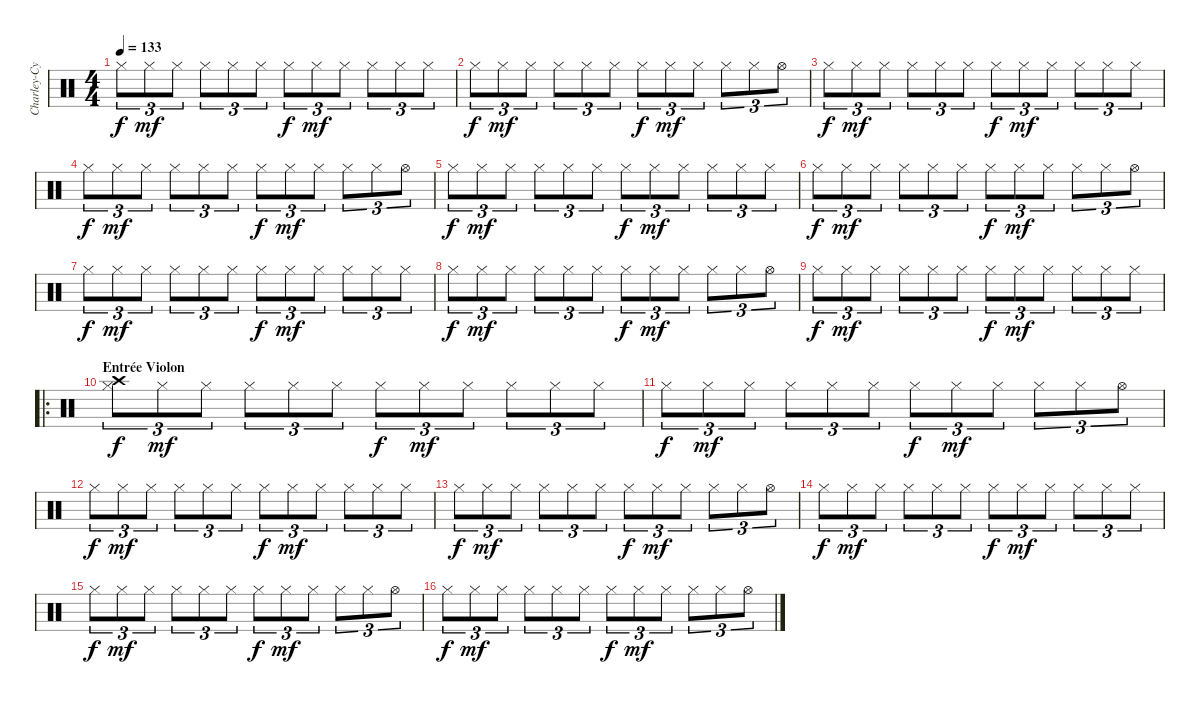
\track ("Charley-Cymbales" "Charley-Cy") {instrument percussion}
\staff {score}
\articulation defaults
\ts (4 4)
\tempo 133
\clef neutral
\ks c "Hi-Hat (closed)".8{tu (3 2) dy f} "Hi-Hat (closed)".8{tu (3 2) dy mf} "Hi-Hat (closed)".8{tu (3 2)} "Hi-Hat (closed)".8{tu (3 2)} "Hi-Hat (closed)".8{tu (3 2)} "Hi-Hat (closed)".8{tu (3 2)} "Hi-Hat (closed)".8{tu (3 2) dy f} "Hi-Hat (closed)".8{tu (3 2) dy mf} "Hi-Hat (closed)".8{tu (3 2)} "Hi-Hat (closed)".8{tu (3 2)} "Hi-Hat (closed)".8{tu (3 2)} "Hi-Hat (closed)".8{tu (3 2)}
|
"Hi-Hat (closed)".8{tu (3 2) dy f} "Hi-Hat (closed)".8{tu (3 2) dy mf} "Hi-Hat (closed)".8{tu (3 2)} "Hi-Hat (closed)".8{tu (3 2)} "Hi-Hat (closed)".8{tu (3 2)} "Hi-Hat (closed)".8{tu (3 2)} "Hi-Hat (closed)".8{tu (3 2) dy f} "Hi-Hat (closed)".8{tu (3 2) dy mf} "Hi-Hat (closed)".8{tu (3 2)} "Hi-Hat (closed)".8{tu (3 2)} "Hi-Hat (closed)".8{tu (3 2)} "Hi-Hat (open)".8{tu (3 2)} |
"Hi-Hat (closed)".8{tu (3 2) dy f} "Hi-Hat (closed)".8{tu (3 2) dy mf} "Hi-Hat (closed)".8{tu (3 2)} "Hi-Hat (closed)".8{tu (3 2)} "Hi-Hat (closed)".8{tu (3 2)} "Hi-Hat (closed)".8{tu (3 2)} "Hi-Hat (closed)".8{tu (3 2) dy f} "Hi-Hat (closed)".8{tu (3 2) dy mf} "Hi-Hat (closed)".8{tu (3 2)} "Hi-Hat (closed)".8{tu (3 2)} "Hi-Hat (closed)".8{tu (3 2)} "Hi-Hat (closed)".8{tu (3 2)} |
"Hi-Hat (closed)".8{tu (3 2) dy f} "Hi-Hat (closed)".8{tu (3 2) dy mf} "Hi-Hat (closed)".8{tu (3 2)} "Hi-Hat (closed)".8{tu (3 2)} "Hi-Hat (closed)".8{tu (3 2)} "Hi-Hat (closed)".8{tu (3 2)} "Hi-Hat (closed)".8{tu (3 2) dy f} "Hi-Hat (closed)".8{tu (3 2) dy mf} "Hi-Hat (closed)".8{tu (3 2)} "Hi-Hat (closed)".8{tu (3 2)} "Hi-Hat (closed)".8{tu (3 2)} "Hi-Hat (open)".8{tu (3 2)} |
"Hi-Hat (closed)".8{tu (3 2) dy f} "Hi-Hat (closed)".8{tu (3 2) dy mf} "Hi-Hat (closed)".8{tu (3 2)} "Hi-Hat (closed)".8{tu (3 2)} "Hi-Hat (closed)".8{tu (3 2)} "Hi-Hat (closed)".8{tu (3 2)} "Hi-Hat (closed)".8{tu (3 2) dy f} "Hi-Hat (closed)".8{tu (3 2) dy mf} "Hi-Hat (closed)".8{tu (3 2)} "Hi-Hat (closed)".8{tu (3 2)} "Hi-Hat (closed)".8{tu (3 2)} "Hi-Hat (closed)".8{tu (3 2)} |
"Hi-Hat (closed)".8{tu (3 2) dy f} "Hi-Hat (closed)".8{tu (3 2) dy mf} "Hi-Hat (closed)".8{tu (3 2)} "Hi-Hat (closed)".8{tu (3 2)} "Hi-Hat (closed)".8{tu (3 2)} "Hi-Hat (closed)".8{tu (3 2)} "Hi-Hat (closed)".8{tu (3 2) dy f} "Hi-Hat (closed)".8{tu (3 2) dy mf} "Hi-Hat (closed)".8{tu (3 2)} "Hi-Hat (closed)".8{tu (3 2)} "Hi-Hat (closed)".8{tu (3 2)} "Hi-Hat (open)".8{tu (3 2)} |
"Hi-Hat (closed)".8{tu (3 2) dy f} "Hi-Hat (closed)".8{tu (3 2) dy mf} "Hi-Hat (closed)".8{tu (3 2)} "Hi-Hat (closed)".8{tu (3 2)} "Hi-Hat (closed)".8{tu (3 2)} "Hi-Hat (closed)".8{tu (3 2)} "Hi-Hat (closed)".8{tu (3 2) dy f} "Hi-Hat (closed)".8{tu (3 2) dy mf} "Hi-Hat (closed)".8{tu (3 2)} "Hi-Hat (closed)".8{tu (3 2)} "Hi-Hat (closed)".8{tu (3 2)} "Hi-Hat (closed)".8{tu (3 2)} |
"Hi-Hat (closed)".8{tu (3 2) dy f} "Hi-Hat (closed)".8{tu (3 2) dy mf} "Hi-Hat (closed)".8{tu (3 2)} "Hi-Hat (closed)".8{tu (3 2)} "Hi-Hat (closed)".8{tu (3 2)} "Hi-Hat (closed)".8{tu (3 2)} "Hi-Hat (closed)".8{tu (3 2) dy f} "Hi-Hat (closed)".8{tu (3 2) dy mf} "Hi-Hat (closed)".8{tu (3 2)} "Hi-Hat (closed)".8{tu (3 2)} "Hi-Hat (closed)".8{tu (3 2)} "Hi-Hat (open)".8{tu (3 2)} |
"Hi-Hat (closed)".8{tu (3 2) dy f} "Hi-Hat (closed)".8{tu (3 2) dy mf} "Hi-Hat (closed)".8{tu (3 2)} "Hi-Hat (closed)".8{tu (3 2)} "Hi-Hat (closed)".8{tu (3 2)} "Hi-Hat (closed)".8{tu (3 2)} "Hi-Hat (closed)".8{tu (3 2) dy f} "Hi-Hat (closed)".8{tu (3 2) dy mf} "Hi-Hat (closed)".8{tu (3 2)} "Hi-Hat (closed)".8{tu (3 2)} "Hi-Hat (closed)".8{tu (3 2)} "Hi-Hat (closed)".8{tu (3 2)} |
\ro
\section ("" "Entrée Violon")
("Crash high (hit)" "Hi-Hat (closed)").8{tu (3 2) dy f} "Hi-Hat (closed)".8{tu (3 2) dy mf} "Hi-Hat (closed)".8{tu (3 2)} "Hi-Hat (closed)".8{tu (3 2)} "Hi-Hat (closed)".8{tu (3 2)} "Hi-Hat (closed)".8{tu (3 2)} "Hi-Hat (closed)".8{tu (3 2) dy f} "Hi-Hat (closed)".8{tu (3 2) dy mf} "Hi-Hat (closed)".8{tu (3 2)} "Hi-Hat (closed)".8{tu (3 2)} "Hi-Hat (closed)".8{tu (3 2)} "Hi-Hat (closed)".8{tu (3 2)} |
"Hi-Hat (closed)".8{tu (3 2) dy f} "Hi-Hat (closed)".8{tu (3 2) dy mf} "Hi-Hat (closed)".8{tu (3 2)} "Hi-Hat (closed)".8{tu (3 2)} "Hi-Hat (closed)".8{tu (3 2)} "Hi-Hat (closed)".8{tu (3 2)} "Hi-Hat (closed)".8{tu (3 2) dy f} "Hi-Hat (closed)".8{tu (3 2) dy mf} "Hi-Hat (closed)".8{tu (3 2)} "Hi-Hat (closed)".8{tu (3 2)} "Hi-Hat (closed)".8{tu (3 2)} "Hi-Hat (open)".8{tu (3 2)} |
"Hi-Hat (closed)".8{tu (3 2) dy f} "Hi-Hat (closed)".8{tu (3 2) dy mf} "Hi-Hat (closed)".8{tu (3 2)} "Hi-Hat (closed)".8{tu (3 2)} "Hi-Hat (closed)".8{tu (3 2)} "Hi-Hat (closed)".8{tu (3 2)} "Hi-Hat (closed)".8{tu (3 2) dy f} "Hi-Hat (closed)".8{tu (3 2) dy mf} "Hi-Hat (closed)".8{tu (3 2)} "Hi-Hat (closed)".8{tu (3 2)} "Hi-Hat (closed)".8{tu (3 2)} "Hi-Hat (closed)".8{tu (3 2)} |
"Hi-Hat (closed)".8{tu (3 2) dy f} "Hi-Hat (closed)".8{tu (3 2) dy mf} "Hi-Hat (closed)".8{tu (3 2)} "Hi-Hat (closed)".8{tu (3 2)} "Hi-Hat (closed)".8{tu (3 2)} "Hi-Hat (closed)".8{tu (3 2)} "Hi-Hat (closed)".8{tu (3 2) dy f} "Hi-Hat (closed)".8{tu (3 2) dy mf} "Hi-Hat (closed)".8{tu (3 2)} "Hi-Hat (closed)".8{tu (3 2)} "Hi-Hat (closed)".8{tu (3 2)} "Hi-Hat (open)".8{tu (3 2)} |
"Hi-Hat (closed)".8{tu (3 2) dy f} "Hi-Hat (closed)".8{tu (3 2) dy mf} "Hi-Hat (closed)".8{tu (3 2)} "Hi-Hat (closed)".8{tu (3 2)} "Hi-Hat (closed)".8{tu (3 2)} "Hi-Hat (closed)".8{tu (3 2)} "Hi-Hat (closed)".8{tu (3 2) dy f} "Hi-Hat (closed)".8{tu (3 2) dy mf} "Hi-Hat (closed)".8{tu (3 2)} "Hi-Hat (closed)".8{tu (3 2)} "Hi-Hat (closed)".8{tu (3 2)} "Hi-Hat (closed)".8{tu (3 2)} |
"Hi-Hat (closed)".8{tu (3 2) dy f} "Hi-Hat (closed)".8{tu (3 2) dy mf} "Hi-Hat (closed)".8{tu (3 2)} "Hi-Hat (closed)".8{tu (3 2)} "Hi-Hat (closed)".8{tu (3 2)} "Hi-Hat (closed)".8{tu (3 2)} "Hi-Hat (closed)".8{tu (3 2) dy f} "Hi-Hat (closed)".8{tu (3 2) dy mf} "Hi-Hat (closed)".8{tu (3 2)} "Hi-Hat (closed)".8{tu (3 2)} "Hi-Hat (closed)".8{tu (3 2)} "Hi-Hat (open)".8{tu (3 2)} |
"Hi-Hat (closed)".8{tu (3 2) dy f} "Hi-Hat (closed)".8{tu (3 2) dy mf} "Hi-Hat (closed)".8{tu (3 2)} "Hi-Hat (closed)".8{tu (3 2)} "Hi-Hat (closed)".8{tu (3 2)} "Hi-Hat (closed)".8{tu (3 2)} "Hi-Hat (closed)".8{tu (3 2) dy f} "Hi-Hat (closed)".8{tu (3 2) dy mf} "Hi-Hat (closed)".8{tu (3 2)} "Hi-Hat (closed)".8{tu (3 2)} "Hi-Hat (closed)".8{tu (3 2)} "Hi-Hat (open)".8{tu (3 2)}
